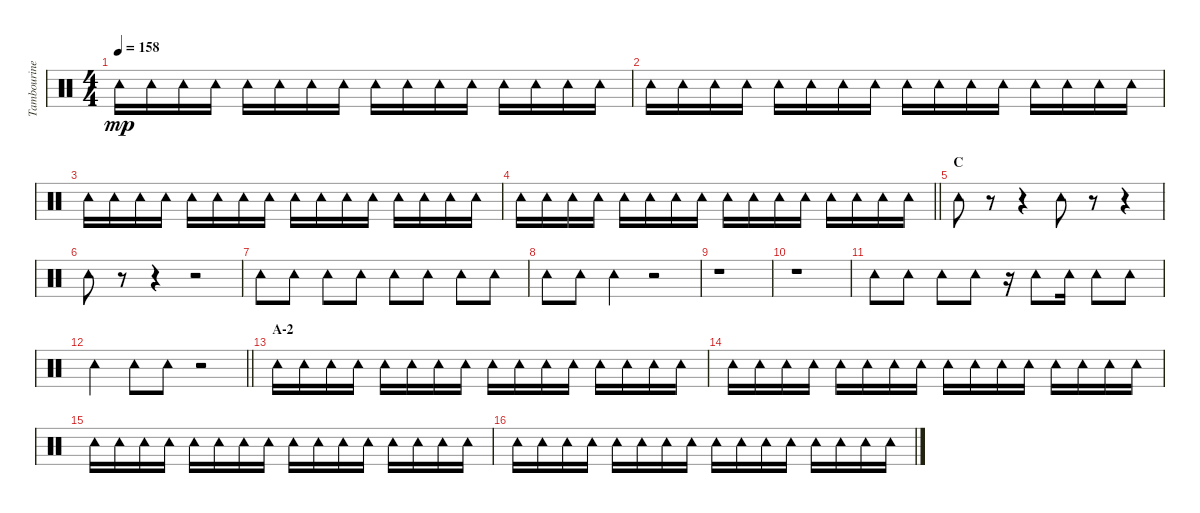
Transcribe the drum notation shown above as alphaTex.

\track ("Tambourine" "Tambourine") {instrument percussion}
\staff {score}
\articulation defaults
\ts (4 4)
\tempo 158
\clef neutral
\ks c "Tambourine (hit)".16{dy mp} "Tambourine (hit)".16 "Tambourine (hit)".16 "Tambourine (hit)".16 "Tambourine (hit)".16 "Tambourine (hit)".16 "Tambourine (hit)".16 "Tambourine (hit)".16 "Tambourine (hit)".16 "Tambourine (hit)".16 "Tambourine (hit)".16 "Tambourine (hit)".16 "Tambourine (hit)".16 "Tambourine (hit)".16 "Tambourine (hit)".16 "Tambourine (hit)".16
|
"Tambourine (hit)".16 "Tambourine (hit)".16 "Tambourine (hit)".16 "Tambourine (hit)".16 "Tambourine (hit)".16 "Tambourine (hit)".16 "Tambourine (hit)".16 "Tambourine (hit)".16 "Tambourine (hit)".16 "Tambourine (hit)".16 "Tambourine (hit)".16 "Tambourine (hit)".16 "Tambourine (hit)".16 "Tambourine (hit)".16 "Tambourine (hit)".16 "Tambourine (hit)".16 |
"Tambourine (hit)".16 "Tambourine (hit)".16 "Tambourine (hit)".16 "Tambourine (hit)".16 "Tambourine (hit)".16 "Tambourine (hit)".16 "Tambourine (hit)".16 "Tambourine (hit)".16 "Tambourine (hit)".16 "Tambourine (hit)".16 "Tambourine (hit)".16 "Tambourine (hit)".16 "Tambourine (hit)".16 "Tambourine (hit)".16 "Tambourine (hit)".16 "Tambourine (hit)".16 |
\barLineRight lightlight "Tambourine (hit)".16 "Tambourine (hit)".16 "Tambourine (hit)".16 "Tambourine (hit)".16 "Tambourine (hit)".16 "Tambourine (hit)".16 "Tambourine (hit)".16 "Tambourine (hit)".16 "Tambourine (hit)".16 "Tambourine (hit)".16 "Tambourine (hit)".16 "Tambourine (hit)".16 "Tambourine (hit)".16 "Tambourine (hit)".16 "Tambourine (hit)".16 "Tambourine (hit)".16
|
\section ("" "C")
"Tambourine (hit)".8 r.8 r.4 "Tambourine (hit)".8 r.8 r.4 |
"Tambourine (hit)".8 r.8 r.4 r.2 |
"Tambourine (hit)".8 "Tambourine (hit)".8 "Tambourine (hit)".8 "Tambourine (hit)".8 "Tambourine (hit)".8 "Tambourine (hit)".8 "Tambourine (hit)".8 "Tambourine (hit)".8 |
"Tambourine (hit)".8 "Tambourine (hit)".8 "Tambourine (hit)".4 r.2 |
r.1 |
r.1 |
"Tambourine (hit)".8 "Tambourine (hit)".8 "Tambourine (hit)".8 "Tambourine (hit)".8 r.16 "Tambourine (hit)".8 "Tambourine (hit)".16 "Tambourine (hit)".8 "Tambourine (hit)".8 |
\barLineRight lightlight "Tambourine (hit)".4 "Tambourine (hit)".8 "Tambourine (hit)".8
r.2 |
\section ("" "A-2")
"Tambourine (hit)".16 "Tambourine (hit)".16 "Tambourine (hit)".16 "Tambourine (hit)".16 "Tambourine (hit)".16 "Tambourine (hit)".16 "Tambourine (hit)".16 "Tambourine (hit)".16 "Tambourine (hit)".16 "Tambourine (hit)".16 "Tambourine (hit)".16 "Tambourine (hit)".16 "Tambourine (hit)".16 "Tambourine (hit)".16 "Tambourine (hit)".16 "Tambourine (hit)".16 |
"Tambourine (hit)".16 "Tambourine (hit)".16 "Tambourine (hit)".16 "Tambourine (hit)".16 "Tambourine (hit)".16 "Tambourine (hit)".16 "Tambourine (hit)".16 "Tambourine (hit)".16 "Tambourine (hit)".16 "Tambourine (hit)".16 "Tambourine (hit)".16 "Tambourine (hit)".16 "Tambourine (hit)".16 "Tambourine (hit)".16 "Tambourine (hit)".16 "Tambourine (hit)".16 |
"Tambourine (hit)".16 "Tambourine (hit)".16 "Tambourine (hit)".16 "Tambourine (hit)".16 "Tambourine (hit)".16 "Tambourine (hit)".16 "Tambourine (hit)".16 "Tambourine (hit)".16 "Tambourine (hit)".16 "Tambourine (hit)".16 "Tambourine (hit)".16 "Tambourine (hit)".16 "Tambourine (hit)".16 "Tambourine (hit)".16 "Tambourine (hit)".16 "Tambourine (hit)".16 |
"Tambourine (hit)".16 "Tambourine (hit)".16 "Tambourine (hit)".16 "Tambourine (hit)".16 "Tambourine (hit)".16 "Tambourine (hit)".16 "Tambourine (hit)".16 "Tambourine (hit)".16 "Tambourine (hit)".16 "Tambourine (hit)".16 "Tambourine (hit)".16 "Tambourine (hit)".16 "Tambourine (hit)".16 "Tambourine (hit)".16 "Tambourine (hit)".16 "Tambourine (hit)".16
